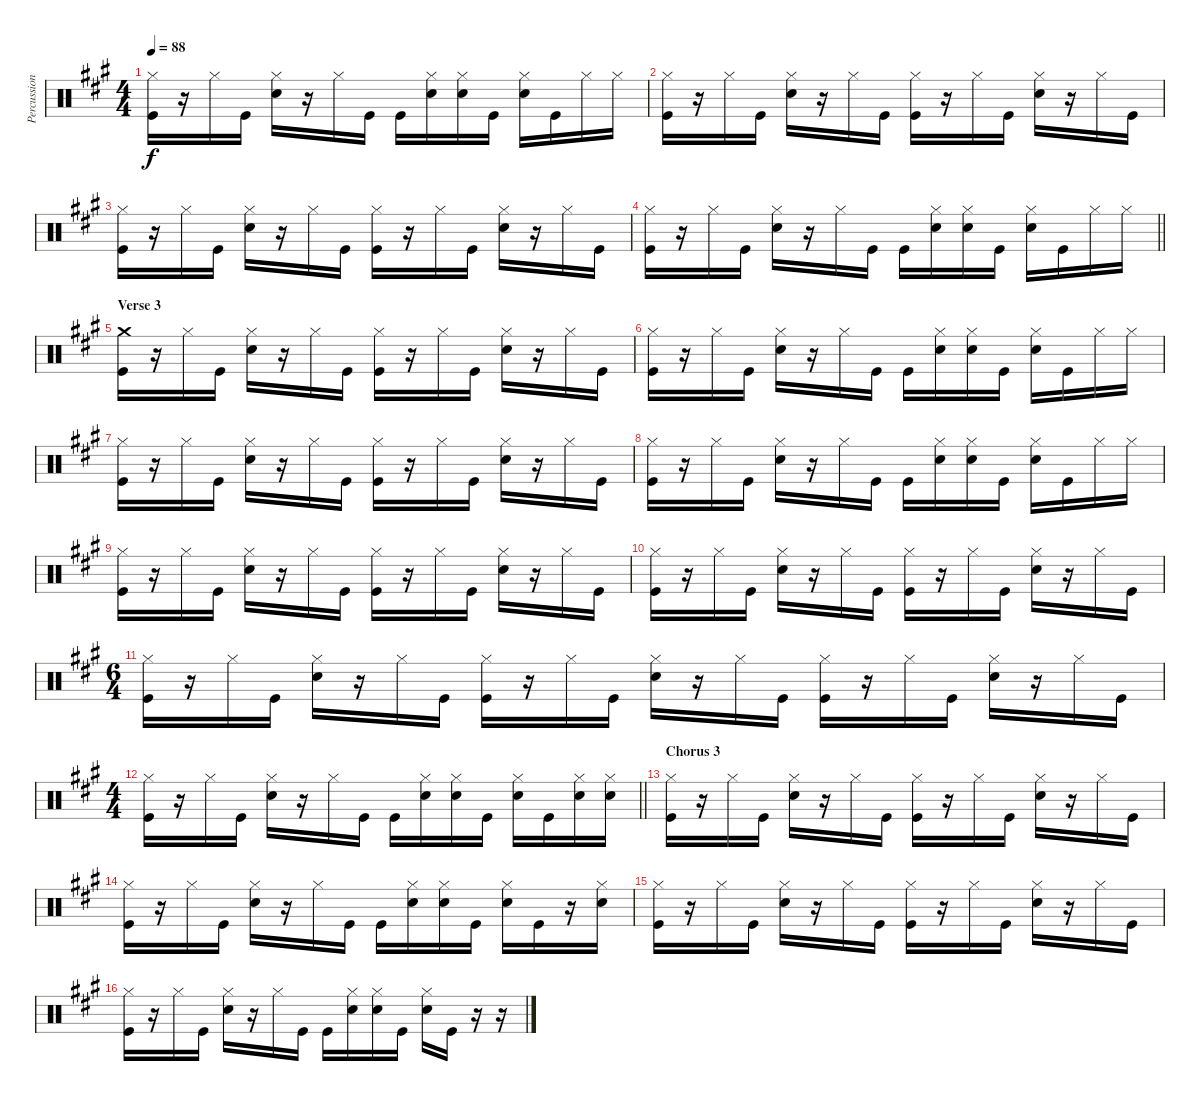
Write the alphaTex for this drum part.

\track ("Percussion" "Percussion") {instrument percussion}
\staff {score}
\articulation defaults
\ts (4 4)
\tempo 88
\clef neutral
\ks a
("Hi-Hat (closed)" "Kick (hit)").16{dy f} r.16 "Hi-Hat (closed)".16 "Kick (hit)".16 ("Hi-Hat (closed)" "Snare (hit) 2").16 r.16 "Hi-Hat (closed)".16 "Kick (hit)".16 "Kick (hit)".16 ("Hi-Hat (closed)" "Snare (hit) 2").16 ("Hi-Hat (closed)" "Snare (hit) 2").16 "Kick (hit)".16 ("Hi-Hat (closed)" "Snare (hit) 2").16 "Kick (hit)".16 "Hi-Hat (closed)".16 "Hi-Hat (closed)".16 |
("Hi-Hat (closed)" "Kick (hit)").16 r.16 "Hi-Hat (closed)".16 "Kick (hit)".16 ("Hi-Hat (closed)" "Snare (hit) 2").16 r.16 "Hi-Hat (closed)".16 "Kick (hit)".16 ("Hi-Hat (closed)" "Kick (hit)").16 r.16 "Hi-Hat (closed)".16 "Kick (hit)".16 ("Hi-Hat (closed)" "Snare (hit) 2").16 r.16 "Hi-Hat (closed)".16 "Kick (hit)".16 |
("Hi-Hat (closed)" "Kick (hit)").16 r.16 "Hi-Hat (closed)".16 "Kick (hit)".16 ("Hi-Hat (closed)" "Snare (hit) 2").16 r.16 "Hi-Hat (closed)".16 "Kick (hit)".16 ("Hi-Hat (closed)" "Kick (hit)").16 r.16 "Hi-Hat (closed)".16 "Kick (hit)".16 ("Hi-Hat (closed)" "Snare (hit) 2").16 r.16 "Hi-Hat (closed)".16 "Kick (hit)".16 |
\barLineRight lightlight
("Hi-Hat (closed)" "Kick (hit)").16 r.16 "Hi-Hat (closed)".16 "Kick (hit)".16 ("Hi-Hat (closed)" "Snare (hit) 2").16 r.16 "Hi-Hat (closed)".16 "Kick (hit)".16 "Kick (hit)".16 ("Hi-Hat (closed)" "Snare (hit) 2").16 ("Hi-Hat (closed)" "Snare (hit) 2").16 "Kick (hit)".16 ("Hi-Hat (closed)" "Snare (hit) 2").16 "Kick (hit)".16 "Hi-Hat (closed)".16 "Hi-Hat (closed)".16 |
\section ("" "Verse 3")
("Crash medium (hit)" "Kick (hit)").16 r.16 "Hi-Hat (closed)".16 "Kick (hit)".16 ("Hi-Hat (closed)" "Snare (hit) 2").16 r.16 "Hi-Hat (closed)".16 "Kick (hit)".16 ("Hi-Hat (closed)" "Kick (hit)").16 r.16 "Hi-Hat (closed)".16 "Kick (hit)".16 ("Hi-Hat (closed)" "Snare (hit) 2").16 r.16 "Hi-Hat (closed)".16 "Kick (hit)".16 |
("Hi-Hat (closed)" "Kick (hit)").16 r.16 "Hi-Hat (closed)".16 "Kick (hit)".16 ("Hi-Hat (closed)" "Snare (hit) 2").16 r.16 "Hi-Hat (closed)".16 "Kick (hit)".16 "Kick (hit)".16 ("Hi-Hat (closed)" "Snare (hit) 2").16 ("Hi-Hat (closed)" "Snare (hit) 2").16 "Kick (hit)".16 ("Hi-Hat (closed)" "Snare (hit) 2").16 "Kick (hit)".16 "Hi-Hat (closed)".16 "Hi-Hat (closed)".16 |
("Hi-Hat (closed)" "Kick (hit)").16 r.16 "Hi-Hat (closed)".16 "Kick (hit)".16 ("Hi-Hat (closed)" "Snare (hit) 2").16 r.16 "Hi-Hat (closed)".16 "Kick (hit)".16 ("Hi-Hat (closed)" "Kick (hit)").16 r.16 "Hi-Hat (closed)".16 "Kick (hit)".16 ("Hi-Hat (closed)" "Snare (hit) 2").16 r.16 "Hi-Hat (closed)".16 "Kick (hit)".16 |
("Hi-Hat (closed)" "Kick (hit)").16 r.16 "Hi-Hat (closed)".16 "Kick (hit)".16 ("Hi-Hat (closed)" "Snare (hit) 2").16 r.16 "Hi-Hat (closed)".16 "Kick (hit)".16 "Kick (hit)".16 ("Hi-Hat (closed)" "Snare (hit) 2").16 ("Hi-Hat (closed)" "Snare (hit) 2").16 "Kick (hit)".16 ("Hi-Hat (closed)" "Snare (hit) 2").16 "Kick (hit)".16 "Hi-Hat (closed)".16 "Hi-Hat (closed)".16 |
("Hi-Hat (closed)" "Kick (hit)").16 r.16 "Hi-Hat (closed)".16 "Kick (hit)".16 ("Hi-Hat (closed)" "Snare (hit) 2").16 r.16 "Hi-Hat (closed)".16 "Kick (hit)".16 ("Hi-Hat (closed)" "Kick (hit)").16 r.16 "Hi-Hat (closed)".16 "Kick (hit)".16 ("Hi-Hat (closed)" "Snare (hit) 2").16 r.16 "Hi-Hat (closed)".16 "Kick (hit)".16 |
("Hi-Hat (closed)" "Kick (hit)").16 r.16 "Hi-Hat (closed)".16 "Kick (hit)".16 ("Hi-Hat (closed)" "Snare (hit) 2").16 r.16 "Hi-Hat (closed)".16 "Kick (hit)".16 ("Hi-Hat (closed)" "Kick (hit)").16 r.16 "Hi-Hat (closed)".16 "Kick (hit)".16 ("Hi-Hat (closed)" "Snare (hit) 2").16 r.16 "Hi-Hat (closed)".16 "Kick (hit)".16 |
\ts (6 4)
("Hi-Hat (closed)" "Kick (hit)").16 r.16 "Hi-Hat (closed)".16 "Kick (hit)".16 ("Hi-Hat (closed)" "Snare (hit) 2").16 r.16 "Hi-Hat (closed)".16 "Kick (hit)".16 ("Hi-Hat (closed)" "Kick (hit)").16 r.16 "Hi-Hat (closed)".16 "Kick (hit)".16 ("Hi-Hat (closed)" "Snare (hit) 2").16 r.16 "Hi-Hat (closed)".16 "Kick (hit)".16 ("Hi-Hat (closed)" "Kick (hit)").16 r.16 "Hi-Hat (closed)".16 "Kick (hit)".16 ("Hi-Hat (closed)" "Snare (hit) 2").16 r.16 "Hi-Hat (closed)".16 "Kick (hit)".16 |
\ts (4 4)
\barLineRight lightlight
("Hi-Hat (closed)" "Kick (hit)").16 r.16 "Hi-Hat (closed)".16 "Kick (hit)".16 ("Hi-Hat (closed)" "Snare (hit) 2").16 r.16 "Hi-Hat (closed)".16 "Kick (hit)".16 "Kick (hit)".16 ("Hi-Hat (closed)" "Snare (hit) 2").16 ("Hi-Hat (closed)" "Snare (hit) 2").16 "Kick (hit)".16 ("Hi-Hat (closed)" "Snare (hit) 2").16 "Kick (hit)".16 ("Hi-Hat (closed)" "Snare (hit) 2").16 ("Hi-Hat (closed)" "Snare (hit) 2").16 |
\section ("" "Chorus 3")
("Hi-Hat (closed)" "Kick (hit)").16 r.16 "Hi-Hat (closed)".16 "Kick (hit)".16 ("Hi-Hat (closed)" "Snare (hit) 2").16 r.16 "Hi-Hat (closed)".16 "Kick (hit)".16 ("Hi-Hat (closed)" "Kick (hit)").16 r.16 "Hi-Hat (closed)".16 "Kick (hit)".16 ("Hi-Hat (closed)" "Snare (hit) 2").16 r.16 "Hi-Hat (closed)".16 "Kick (hit)".16 |
("Hi-Hat (closed)" "Kick (hit)").16 r.16 "Hi-Hat (closed)".16 "Kick (hit)".16 ("Hi-Hat (closed)" "Snare (hit) 2").16 r.16 "Hi-Hat (closed)".16 "Kick (hit)".16 "Kick (hit)".16 ("Hi-Hat (closed)" "Snare (hit) 2").16 ("Hi-Hat (closed)" "Snare (hit) 2").16 "Kick (hit)".16 ("Hi-Hat (closed)" "Snare (hit) 2").16 "Kick (hit)".16 r.16 ("Hi-Hat (closed)" "Snare (hit) 2").16 |
("Hi-Hat (closed)" "Kick (hit)").16 r.16 "Hi-Hat (closed)".16 "Kick (hit)".16 ("Hi-Hat (closed)" "Snare (hit) 2").16 r.16 "Hi-Hat (closed)".16 "Kick (hit)".16 ("Hi-Hat (closed)" "Kick (hit)").16 r.16 "Hi-Hat (closed)".16 "Kick (hit)".16 ("Hi-Hat (closed)" "Snare (hit) 2").16 r.16 "Hi-Hat (closed)".16 "Kick (hit)".16 |
("Hi-Hat (closed)" "Kick (hit)").16 r.16 "Hi-Hat (closed)".16 "Kick (hit)".16 ("Hi-Hat (closed)" "Snare (hit) 2").16 r.16 "Hi-Hat (closed)".16 "Kick (hit)".16 "Kick (hit)".16 ("Hi-Hat (closed)" "Snare (hit) 2").16 ("Hi-Hat (closed)" "Snare (hit) 2").16 "Kick (hit)".16 ("Hi-Hat (closed)" "Snare (hit) 2").16 "Kick (hit)".16 r.16 r.16
